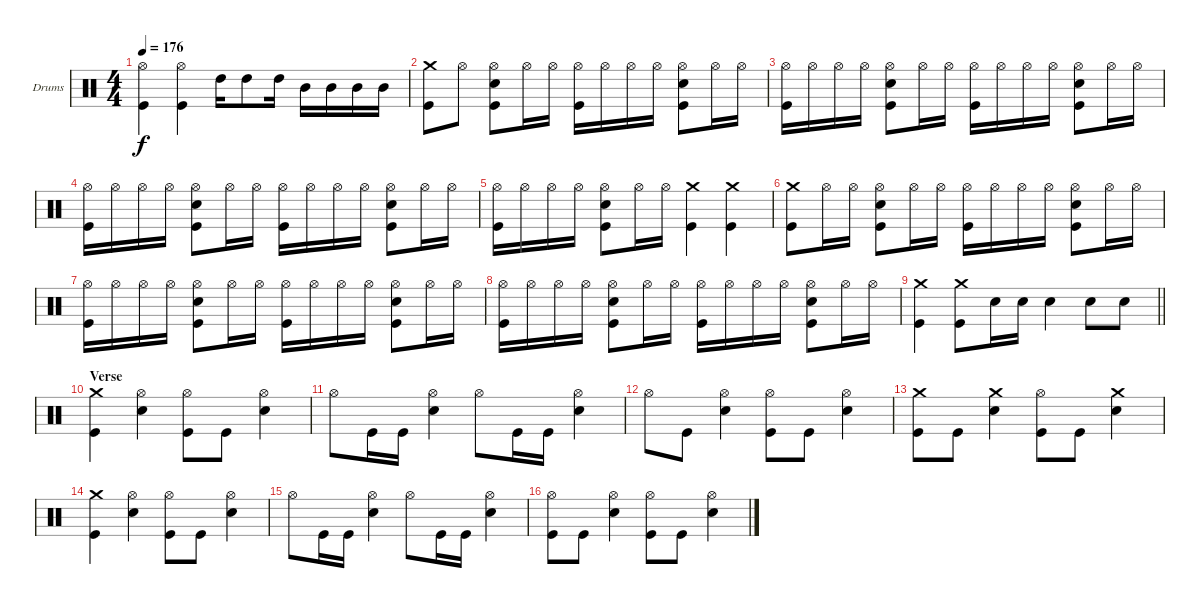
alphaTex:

\bracketExtendMode groupsimilarinstruments
\firstSystemTrackNameOrientation horizontal
\otherSystemsTrackNameOrientation horizontal
\track ("Drums" "Drums") {instrument percussion}
\staff {score}
\articulation defaults
\ts (4 4)
\tempo 176
\clef neutral
\ks c
("Hi-Hat (open)" "Kick (hit)").4{dy f} ("Hi-Hat (open)" "Kick (hit)").4 "High Tom (hit)".16 "High Tom (hit)".8 "High Tom (hit)".16 "Mid Tom (hit)".16 "Mid Tom (hit)".16 "Mid Tom (hit)".16 "Mid Tom (hit)".16 |
("Crash medium (hit)" "Kick (hit)").8 "Hi-Hat (open)".8 ("Snare (hit) 2" "Kick (hit)" "Hi-Hat (open)").8 "Hi-Hat (open)".16 "Hi-Hat (open)".16 ("Kick (hit)" "Hi-Hat (open)").16 "Hi-Hat (open)".16 "Hi-Hat (open)".16 "Hi-Hat (open)".16 ("Snare (hit) 2" "Kick (hit)" "Hi-Hat (open)").8 "Hi-Hat (open)".16 "Hi-Hat (open)".16 |
("Kick (hit)" "Hi-Hat (open)").16 "Hi-Hat (open)".16 "Hi-Hat (open)".16 "Hi-Hat (open)".16 ("Snare (hit) 2" "Kick (hit)" "Hi-Hat (open)").8 "Hi-Hat (open)".16 "Hi-Hat (open)".16 ("Kick (hit)" "Hi-Hat (open)").16 "Hi-Hat (open)".16 "Hi-Hat (open)".16 "Hi-Hat (open)".16 ("Snare (hit) 2" "Kick (hit)" "Hi-Hat (open)").8 "Hi-Hat (open)".16 "Hi-Hat (open)".16 |
("Kick (hit)" "Hi-Hat (open)").16 "Hi-Hat (open)".16 "Hi-Hat (open)".16 "Hi-Hat (open)".16 ("Snare (hit) 2" "Kick (hit)" "Hi-Hat (open)").8 "Hi-Hat (open)".16 "Hi-Hat (open)".16 ("Kick (hit)" "Hi-Hat (open)").16 "Hi-Hat (open)".16 "Hi-Hat (open)".16 "Hi-Hat (open)".16 ("Snare (hit) 2" "Kick (hit)" "Hi-Hat (open)").8 "Hi-Hat (open)".16 "Hi-Hat (open)".16 |
("Hi-Hat (open)" "Kick (hit)").16 "Hi-Hat (open)".16 "Hi-Hat (open)".16 "Hi-Hat (open)".16 ("Hi-Hat (open)" "Snare (hit) 2" "Kick (hit)").8 "Hi-Hat (open)".16 "Hi-Hat (open)".16 ("Crash medium (hit)" "Kick (hit)").4 ("Crash medium (hit)" "Kick (hit)").4 |
("Crash medium (hit)" "Kick (hit)").8 "Hi-Hat (open)".16 "Hi-Hat (open)".16 ("Snare (hit) 2" "Kick (hit)" "Hi-Hat (open)").8 "Hi-Hat (open)".16 "Hi-Hat (open)".16 ("Kick (hit)" "Hi-Hat (open)").16 "Hi-Hat (open)".16 "Hi-Hat (open)".16 "Hi-Hat (open)".16 ("Snare (hit) 2" "Kick (hit)" "Hi-Hat (open)").8 "Hi-Hat (open)".16 "Hi-Hat (open)".16 |
("Kick (hit)" "Hi-Hat (open)").16 "Hi-Hat (open)".16 "Hi-Hat (open)".16 "Hi-Hat (open)".16 ("Snare (hit) 2" "Kick (hit)" "Hi-Hat (open)").8 "Hi-Hat (open)".16 "Hi-Hat (open)".16 ("Kick (hit)" "Hi-Hat (open)").16 "Hi-Hat (open)".16 "Hi-Hat (open)".16 "Hi-Hat (open)".16 ("Snare (hit) 2" "Kick (hit)" "Hi-Hat (open)").8 "Hi-Hat (open)".16 "Hi-Hat (open)".16 |
("Kick (hit)" "Hi-Hat (open)").16 "Hi-Hat (open)".16 "Hi-Hat (open)".16 "Hi-Hat (open)".16 ("Snare (hit) 2" "Kick (hit)" "Hi-Hat (open)").8 "Hi-Hat (open)".16 "Hi-Hat (open)".16 ("Kick (hit)" "Hi-Hat (open)").16 "Hi-Hat (open)".16 "Hi-Hat (open)".16 "Hi-Hat (open)".16 ("Snare (hit) 2" "Kick (hit)" "Hi-Hat (open)").8 "Hi-Hat (open)".16 "Hi-Hat (open)".16 |
\barLineRight lightlight
("Crash medium (hit)" "Kick (hit)").4 ("Crash medium (hit)" "Kick (hit)").8 "Snare (hit) 2".16 "Snare (hit) 2".16 "Snare (hit) 2".4 "Snare (hit) 2".8 "Snare (hit) 2".8 |
\section ("" "Verse")
("Crash medium (hit)" "Kick (hit)").4 ("Hi-Hat (open)" "Snare (hit) 2").4 ("Hi-Hat (open)" "Kick (hit)").8 "Kick (hit)".8 ("Hi-Hat (open)" "Snare (hit) 2").4 |
"Hi-Hat (open)".8 "Kick (hit)".16 "Kick (hit)".16 ("Hi-Hat (open)" "Snare (hit) 2").4 "Hi-Hat (open)".8 "Kick (hit)".16 "Kick (hit)".16 ("Hi-Hat (open)" "Snare (hit) 2").4 |
"Hi-Hat (open)".8 "Kick (hit)".8 ("Hi-Hat (open)" "Snare (hit) 2").4 ("Hi-Hat (open)" "Kick (hit)").8 "Kick (hit)".8 ("Hi-Hat (open)" "Snare (hit) 2").4 |
("Crash medium (hit)" "Kick (hit)").8 "Kick (hit)".8 ("Crash medium (hit)" "Snare (hit) 2").4 ("Hi-Hat (open)" "Kick (hit)").8 "Kick (hit)".8 ("Crash medium (hit)" "Snare (hit) 2").4 |
("Crash medium (hit)" "Kick (hit)").4 ("Hi-Hat (open)" "Snare (hit) 2").4 ("Hi-Hat (open)" "Kick (hit)").8 "Kick (hit)".8 ("Hi-Hat (open)" "Snare (hit) 2").4 |
"Hi-Hat (open)".8 "Kick (hit)".16 "Kick (hit)".16 ("Hi-Hat (open)" "Snare (hit) 2").4 "Hi-Hat (open)".8 "Kick (hit)".16 "Kick (hit)".16 ("Hi-Hat (open)" "Snare (hit) 2").4 |
("Hi-Hat (open)" "Kick (hit)").8 "Kick (hit)".8 ("Hi-Hat (open)" "Snare (hit) 2").4 ("Hi-Hat (open)" "Kick (hit)").8 "Kick (hit)".8 ("Hi-Hat (open)" "Snare (hit) 2").4
